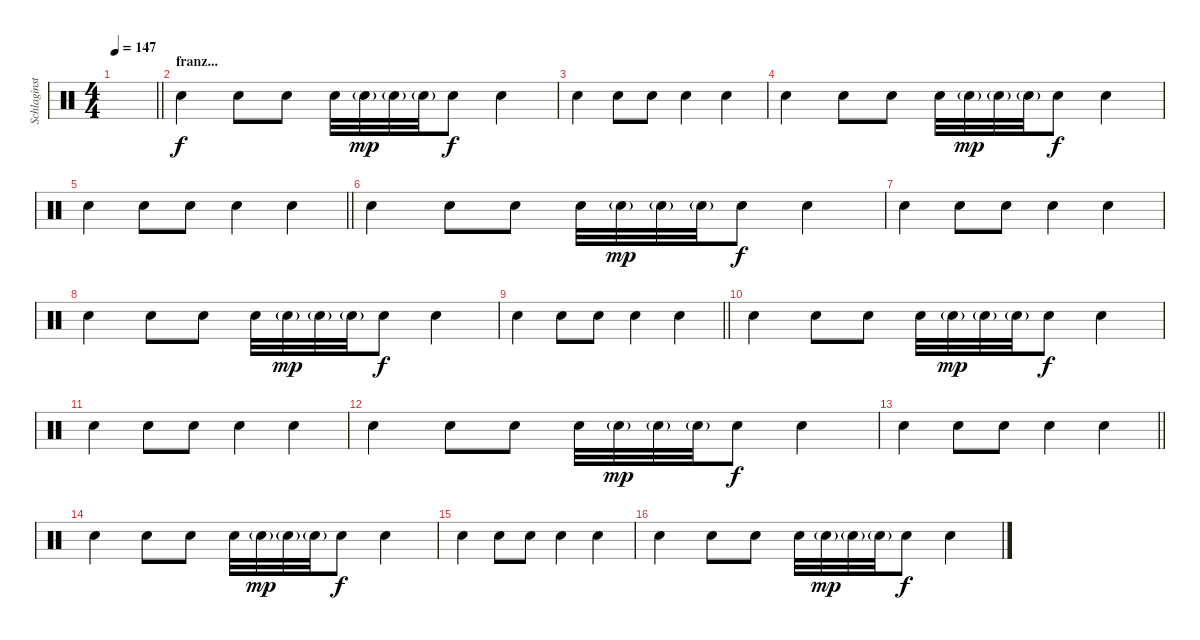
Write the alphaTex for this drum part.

\track ("Schlaginstrumente - Auswahl" "Schlaginst") {instrument percussion}
\staff {score}
\articulation defaults
\ts (4 4)
\tempo 147
\clef neutral
\barLineRight lightlight
\ks c
|
\section ("" "franz...")
"Snare (hit) 2".4{volume 8} "Snare (hit) 2".8 "Snare (hit) 2".8 "Snare (hit) 2".32 "Electric Snare (hit)"{g}.32{dy mp} "Electric Snare (hit)"{g}.32 "Electric Snare (hit)"{g}.32 "Snare (hit) 2".8{dy f} "Snare (hit) 2".4 |
"Snare (hit) 2".4 "Snare (hit) 2".8 "Snare (hit) 2".8 "Snare (hit) 2".4 "Snare (hit) 2".4 |
"Snare (hit) 2".4 "Snare (hit) 2".8 "Snare (hit) 2".8 "Snare (hit) 2".32 "Electric Snare (hit)"{g}.32{dy mp} "Electric Snare (hit)"{g}.32 "Electric Snare (hit)"{g}.32 "Snare (hit) 2".8{dy f} "Snare (hit) 2".4 |
\barLineRight lightlight "Snare (hit) 2".4 "Snare (hit) 2".8 "Snare (hit) 2".8 "Snare (hit) 2".4 "Snare (hit) 2".4
|
"Snare (hit) 2".4 "Snare (hit) 2".8 "Snare (hit) 2".8 "Snare (hit) 2".32 "Electric Snare (hit)"{g}.32{dy mp} "Electric Snare (hit)"{g}.32 "Electric Snare (hit)"{g}.32 "Snare (hit) 2".8{dy f} "Snare (hit) 2".4 |
"Snare (hit) 2".4 "Snare (hit) 2".8 "Snare (hit) 2".8 "Snare (hit) 2".4 "Snare (hit) 2".4 |
"Snare (hit) 2".4 "Snare (hit) 2".8 "Snare (hit) 2".8 "Snare (hit) 2".32 "Electric Snare (hit)"{g}.32{dy mp} "Electric Snare (hit)"{g}.32 "Electric Snare (hit)"{g}.32 "Snare (hit) 2".8{dy f} "Snare (hit) 2".4 |
\barLineRight lightlight "Snare (hit) 2".4 "Snare (hit) 2".8 "Snare (hit) 2".8 "Snare (hit) 2".4 "Snare (hit) 2".4
|
"Snare (hit) 2".4 "Snare (hit) 2".8 "Snare (hit) 2".8 "Snare (hit) 2".32 "Electric Snare (hit)"{g}.32{dy mp} "Electric Snare (hit)"{g}.32 "Electric Snare (hit)"{g}.32 "Snare (hit) 2".8{dy f} "Snare (hit) 2".4 |
"Snare (hit) 2".4 "Snare (hit) 2".8 "Snare (hit) 2".8 "Snare (hit) 2".4 "Snare (hit) 2".4 |
"Snare (hit) 2".4 "Snare (hit) 2".8 "Snare (hit) 2".8 "Snare (hit) 2".32 "Electric Snare (hit)"{g}.32{dy mp} "Electric Snare (hit)"{g}.32 "Electric Snare (hit)"{g}.32 "Snare (hit) 2".8{dy f} "Snare (hit) 2".4 |
\barLineRight lightlight "Snare (hit) 2".4 "Snare (hit) 2".8 "Snare (hit) 2".8 "Snare (hit) 2".4 "Snare (hit) 2".4
|
"Snare (hit) 2".4 "Snare (hit) 2".8 "Snare (hit) 2".8 "Snare (hit) 2".32 "Electric Snare (hit)"{g}.32{dy mp} "Electric Snare (hit)"{g}.32 "Electric Snare (hit)"{g}.32 "Snare (hit) 2".8{dy f} "Snare (hit) 2".4 |
"Snare (hit) 2".4 "Snare (hit) 2".8 "Snare (hit) 2".8 "Snare (hit) 2".4 "Snare (hit) 2".4 |
"Snare (hit) 2".4 "Snare (hit) 2".8 "Snare (hit) 2".8 "Snare (hit) 2".32 "Electric Snare (hit)"{g}.32{dy mp} "Electric Snare (hit)"{g}.32 "Electric Snare (hit)"{g}.32 "Snare (hit) 2".8{dy f} "Snare (hit) 2".4
